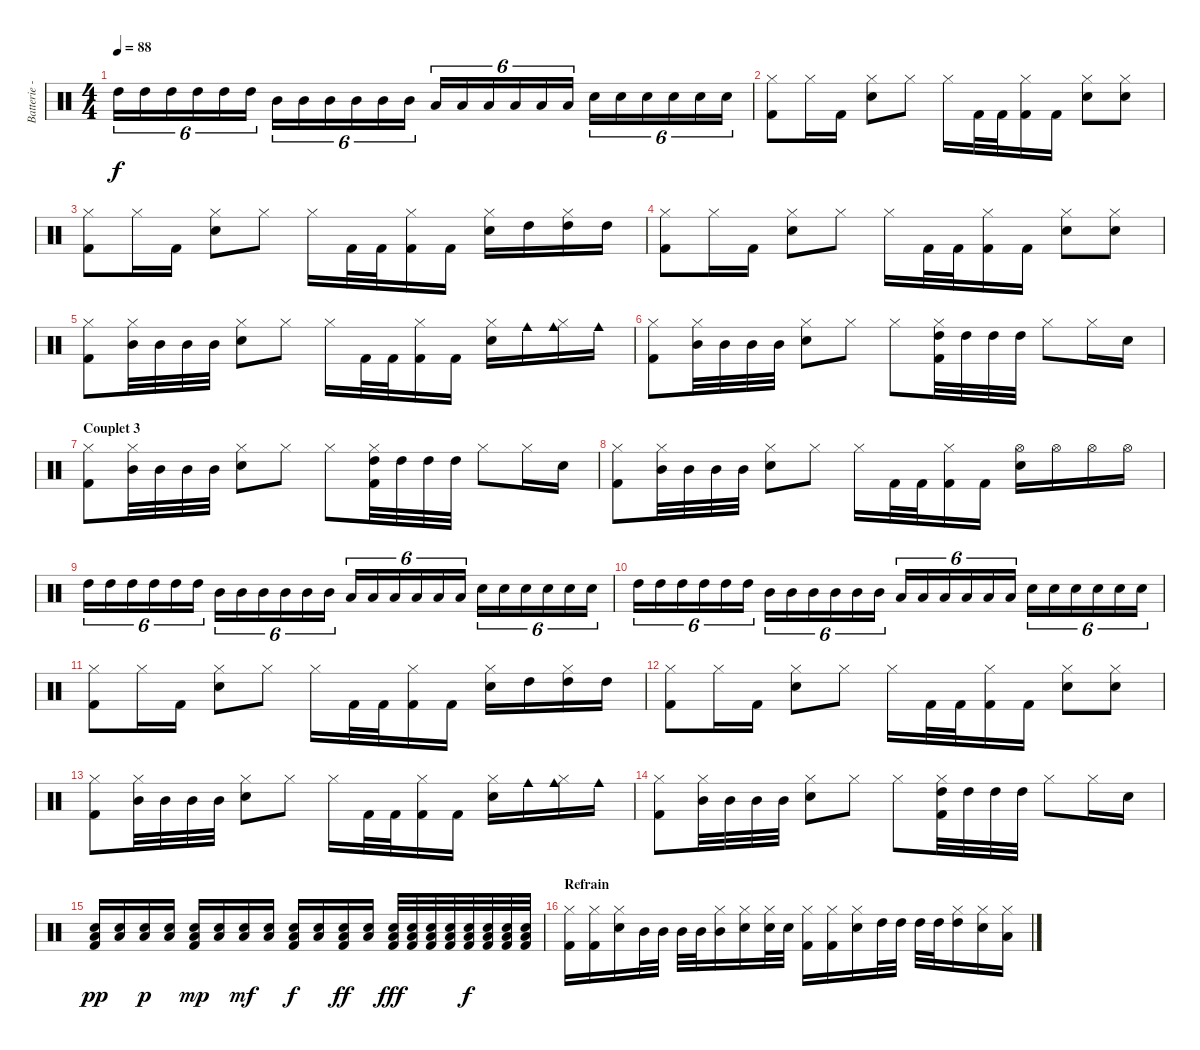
\track ("Batterie - Franz'" "Batterie -") {instrument percussion}
\staff {score}
\articulation defaults
\ts (4 4)
\tempo 88
\clef neutral
\ks c "High Tom (hit)".16{tu (6 4) dy f} "High Tom (hit)".16{tu (6 4)} "High Tom (hit)".16{tu (6 4)} "High Tom (hit)".16{tu (6 4)} "High Tom (hit)".16{tu (6 4)} "High Tom (hit)".16{tu (6 4)} "Mid Tom (hit)".16{tu (6 4)} "Mid Tom (hit)".16{tu (6 4)} "Mid Tom (hit)".16{tu (6 4)} "Mid Tom (hit)".16{tu (6 4)} "Mid Tom (hit)".16{tu (6 4)} "Mid Tom (hit)".16{tu (6 4)} "Low Tom (hit)".16{tu (6 4)} "Low Tom (hit)".16{tu (6 4)} "Low Tom (hit)".16{tu (6 4)} "Low Tom (hit)".16{tu (6 4)} "Low Tom (hit)".16{tu (6 4)} "Low Tom (hit)".16{tu (6 4)} "Electric Snare (hit)".16{tu (6 4)} "Electric Snare (hit)".16{tu (6 4)} "Electric Snare (hit)".16{tu (6 4)} "Electric Snare (hit)".16{tu (6 4)} "Electric Snare (hit)".16{tu (6 4)} "Electric Snare (hit)".16{tu (6 4)}
|
("Hi-Hat (closed)" "Kick (hit) 2").8 "Hi-Hat (closed)".16 "Kick (hit) 2".16 ("Hi-Hat (closed)" "Electric Snare (hit)").8 "Hi-Hat (closed)".8 "Hi-Hat (closed)".16 "Kick (hit) 2".32 "Kick (hit) 2".32 ("Hi-Hat (closed)" "Kick (hit) 2").16 "Kick (hit) 2".16 ("Hi-Hat (closed)" "Electric Snare (hit)").8 ("Hi-Hat (closed)" "Electric Snare (hit)").8 |
("Hi-Hat (closed)" "Kick (hit) 2").8 "Hi-Hat (closed)".16 "Kick (hit) 2".16 ("Hi-Hat (closed)" "Electric Snare (hit)").8 "Hi-Hat (closed)".8 "Hi-Hat (closed)".16 "Kick (hit) 2".32 "Kick (hit) 2".32 ("Hi-Hat (closed)" "Kick (hit) 2").16 "Kick (hit) 2".16 ("Hi-Hat (closed)" "Electric Snare (hit)").16 "High Tom (hit)".16 ("Hi-Hat (closed)" "High Tom (hit)").16 "High Tom (hit)".16 |
("Hi-Hat (closed)" "Kick (hit) 2").8 "Hi-Hat (closed)".16 "Kick (hit) 2".16 ("Hi-Hat (closed)" "Electric Snare (hit)").8 "Hi-Hat (closed)".8 "Hi-Hat (closed)".16 "Kick (hit) 2".32 "Kick (hit) 2".32 ("Hi-Hat (closed)" "Kick (hit) 2").16 "Kick (hit) 2".16 ("Hi-Hat (closed)" "Electric Snare (hit)").8 ("Hi-Hat (closed)" "Electric Snare (hit)").8 |
("Hi-Hat (closed)" "Kick (hit) 2").8 ("Hi-Hat (closed)" "Mid Tom (hit)").32 "Mid Tom (hit)".32 "Mid Tom (hit)".32 "Mid Tom (hit)".32 ("Hi-Hat (closed)" "Electric Snare (hit)").8 "Hi-Hat (closed)".8 "Hi-Hat (closed)".16 "Kick (hit) 2".32 "Kick (hit) 2".32 ("Hi-Hat (closed)" "Kick (hit) 2").16 "Kick (hit) 2".16 ("Hi-Hat (closed)" "Electric Snare (hit)").16 "Cowbell medium (hit)".16 ("Hi-Hat (closed)" "Cowbell medium (hit)").16 "Cowbell medium (hit)".16 |
("Hi-Hat (closed)" "Kick (hit) 2").8 ("Hi-Hat (closed)" "Mid Tom (hit)").32 "Mid Tom (hit)".32 "Mid Tom (hit)".32 "Mid Tom (hit)".32 ("Hi-Hat (closed)" "Electric Snare (hit)").8 "Hi-Hat (closed)".8 "Hi-Hat (closed)".8 ("Hi-Hat (closed)" "High Tom (hit)" "Kick (hit) 2").32 "High Tom (hit)".32 "High Tom (hit)".32 "High Tom (hit)".32 "Hi-Hat (closed)".8 "Hi-Hat (closed)".16 "Electric Snare (hit)".16 |
\section ("" "Couplet 3")
("Hi-Hat (closed)" "Kick (hit) 2").8 ("Hi-Hat (closed)" "Mid Tom (hit)").32 "Mid Tom (hit)".32 "Mid Tom (hit)".32 "Mid Tom (hit)".32 ("Hi-Hat (closed)" "Electric Snare (hit)").8 "Hi-Hat (closed)".8 "Hi-Hat (closed)".8 ("Hi-Hat (closed)" "High Tom (hit)" "Kick (hit) 2").32 "High Tom (hit)".32 "High Tom (hit)".32 "High Tom (hit)".32 "Hi-Hat (closed)".8 "Hi-Hat (closed)".16 "Electric Snare (hit)".16 |
("Hi-Hat (closed)" "Kick (hit) 2").8 ("Hi-Hat (closed)" "Mid Tom (hit)").32 "Mid Tom (hit)".32 "Mid Tom (hit)".32 "Mid Tom (hit)".32 ("Hi-Hat (closed)" "Electric Snare (hit)").8 "Hi-Hat (closed)".8 "Hi-Hat (closed)".16 "Kick (hit) 2".32 "Kick (hit) 2".32 ("Hi-Hat (closed)" "Kick (hit) 2").16 "Kick (hit) 2".16 ("Hi-Hat (open)" "Electric Snare (hit)").16 "Hi-Hat (open)".16 "Hi-Hat (open)".16 "Hi-Hat (open)".16 |
"High Tom (hit)".16{tu (6 4)} "High Tom (hit)".16{tu (6 4)} "High Tom (hit)".16{tu (6 4)} "High Tom (hit)".16{tu (6 4)} "High Tom (hit)".16{tu (6 4)} "High Tom (hit)".16{tu (6 4)} "Mid Tom (hit)".16{tu (6 4)} "Mid Tom (hit)".16{tu (6 4)} "Mid Tom (hit)".16{tu (6 4)} "Mid Tom (hit)".16{tu (6 4)} "Mid Tom (hit)".16{tu (6 4)} "Mid Tom (hit)".16{tu (6 4)} "Low Tom (hit)".16{tu (6 4)} "Low Tom (hit)".16{tu (6 4)} "Low Tom (hit)".16{tu (6 4)} "Low Tom (hit)".16{tu (6 4)} "Low Tom (hit)".16{tu (6 4)} "Low Tom (hit)".16{tu (6 4)} "Electric Snare (hit)".16{tu (6 4)} "Electric Snare (hit)".16{tu (6 4)} "Electric Snare (hit)".16{tu (6 4)} "Electric Snare (hit)".16{tu (6 4)} "Electric Snare (hit)".16{tu (6 4)} "Electric Snare (hit)".16{tu (6 4)} |
"High Tom (hit)".16{tu (6 4)} "High Tom (hit)".16{tu (6 4)} "High Tom (hit)".16{tu (6 4)} "High Tom (hit)".16{tu (6 4)} "High Tom (hit)".16{tu (6 4)} "High Tom (hit)".16{tu (6 4)} "Mid Tom (hit)".16{tu (6 4)} "Mid Tom (hit)".16{tu (6 4)} "Mid Tom (hit)".16{tu (6 4)} "Mid Tom (hit)".16{tu (6 4)} "Mid Tom (hit)".16{tu (6 4)} "Mid Tom (hit)".16{tu (6 4)} "Low Tom (hit)".16{tu (6 4)} "Low Tom (hit)".16{tu (6 4)} "Low Tom (hit)".16{tu (6 4)} "Low Tom (hit)".16{tu (6 4)} "Low Tom (hit)".16{tu (6 4)} "Low Tom (hit)".16{tu (6 4)} "Electric Snare (hit)".16{tu (6 4)} "Electric Snare (hit)".16{tu (6 4)} "Electric Snare (hit)".16{tu (6 4)} "Electric Snare (hit)".16{tu (6 4)} "Electric Snare (hit)".16{tu (6 4)} "Electric Snare (hit)".16{tu (6 4)} |
("Hi-Hat (closed)" "Kick (hit) 2").8 "Hi-Hat (closed)".16 "Kick (hit) 2".16 ("Hi-Hat (closed)" "Electric Snare (hit)").8 "Hi-Hat (closed)".8 "Hi-Hat (closed)".16 "Kick (hit) 2".32 "Kick (hit) 2".32 ("Hi-Hat (closed)" "Kick (hit) 2").16 "Kick (hit) 2".16 ("Hi-Hat (closed)" "Electric Snare (hit)").16 "High Tom (hit)".16 ("Hi-Hat (closed)" "High Tom (hit)").16 "High Tom (hit)".16 |
("Hi-Hat (closed)" "Kick (hit) 2").8 "Hi-Hat (closed)".16 "Kick (hit) 2".16 ("Hi-Hat (closed)" "Electric Snare (hit)").8 "Hi-Hat (closed)".8 "Hi-Hat (closed)".16 "Kick (hit) 2".32 "Kick (hit) 2".32 ("Hi-Hat (closed)" "Kick (hit) 2").16 "Kick (hit) 2".16 ("Hi-Hat (closed)" "Electric Snare (hit)").8 ("Hi-Hat (closed)" "Electric Snare (hit)").8 |
("Hi-Hat (closed)" "Kick (hit) 2").8 ("Hi-Hat (closed)" "Mid Tom (hit)").32 "Mid Tom (hit)".32 "Mid Tom (hit)".32 "Mid Tom (hit)".32 ("Hi-Hat (closed)" "Electric Snare (hit)").8 "Hi-Hat (closed)".8 "Hi-Hat (closed)".16 "Kick (hit) 2".32 "Kick (hit) 2".32 ("Hi-Hat (closed)" "Kick (hit) 2").16 "Kick (hit) 2".16 ("Hi-Hat (closed)" "Electric Snare (hit)").16 "Cowbell medium (hit)".16 ("Hi-Hat (closed)" "Cowbell medium (hit)").16 "Cowbell medium (hit)".16 |
("Hi-Hat (closed)" "Kick (hit) 2").8 ("Hi-Hat (closed)" "Mid Tom (hit)").32 "Mid Tom (hit)".32 "Mid Tom (hit)".32 "Mid Tom (hit)".32 ("Hi-Hat (closed)" "Electric Snare (hit)").8 "Hi-Hat (closed)".8 "Hi-Hat (closed)".8 ("Hi-Hat (closed)" "High Tom (hit)" "Kick (hit) 2").32 "High Tom (hit)".32 "High Tom (hit)".32 "High Tom (hit)".32 "Hi-Hat (closed)".8 "Hi-Hat (closed)".16 "Electric Snare (hit)".16 |
("Electric Snare (hit)" "Low Tom (hit)" "Kick (hit) 2").16{dy pp} ("Electric Snare (hit)" "Low Tom (hit)").16 ("Electric Snare (hit)" "Low Tom (hit)").16{dy p} ("Electric Snare (hit)" "Low Tom (hit)").16 ("Electric Snare (hit)" "Low Tom (hit)" "Kick (hit) 2").16{dy mp} ("Electric Snare (hit)" "Low Tom (hit)").16 ("Electric Snare (hit)" "Low Tom (hit)").16{dy mf} ("Electric Snare (hit)" "Low Tom (hit)").16 ("Electric Snare (hit)" "Low Tom (hit)" "Kick (hit) 2").16{dy f} ("Electric Snare (hit)" "Low Tom (hit)").16 ("Electric Snare (hit)" "Low Tom (hit)" "Kick (hit) 2").16{dy ff} ("Electric Snare (hit)" "Low Tom (hit)").16 ("Electric Snare (hit)" "Low Tom (hit)" "Kick (hit) 2").32{dy fff} ("Electric Snare (hit)" "Low Tom (hit)" "Kick (hit) 2").32 ("Electric Snare (hit)" "Low Tom (hit)" "Kick (hit) 2").32 ("Electric Snare (hit)" "Low Tom (hit)" "Kick (hit) 2").32 ("Electric Snare (hit)" "Low Tom (hit)" "Kick (hit) 2").32{dy f} ("Electric Snare (hit)" "Low Tom (hit)" "Kick (hit) 2").32 ("Electric Snare (hit)" "Low Tom (hit)" "Kick (hit) 2").32 ("Electric Snare (hit)" "Low Tom (hit)" "Kick (hit) 2").32 |
\section ("" "Refrain")
("Hi-Hat (closed)" "Kick (hit) 2").16 ("Hi-Hat (closed)" "Kick (hit) 2").16 ("Hi-Hat (closed)" "Electric Snare (hit)").16 "Mid Tom (hit)".32 "Mid Tom (hit)".32 "Mid Tom (hit)".32 "Mid Tom (hit)".32 ("Hi-Hat (closed)" "Mid Tom (hit)").16 ("Hi-Hat (closed)" "Electric Snare (hit)").16 ("Hi-Hat (closed)" "Electric Snare (hit)").32 "Electric Snare (hit)".32 ("Hi-Hat (closed)" "Kick (hit) 2").16 ("Hi-Hat (closed)" "Kick (hit) 2").16 ("Hi-Hat (closed)" "Electric Snare (hit)").16 "High Tom (hit)".32 "High Tom (hit)".32 "High Tom (hit)".32 "High Tom (hit)".32 ("Hi-Hat (closed)" "High Tom (hit)").16 ("Hi-Hat (closed)" "Electric Snare (hit)").16 ("Hi-Hat (closed)" "Low Tom (hit)").16
